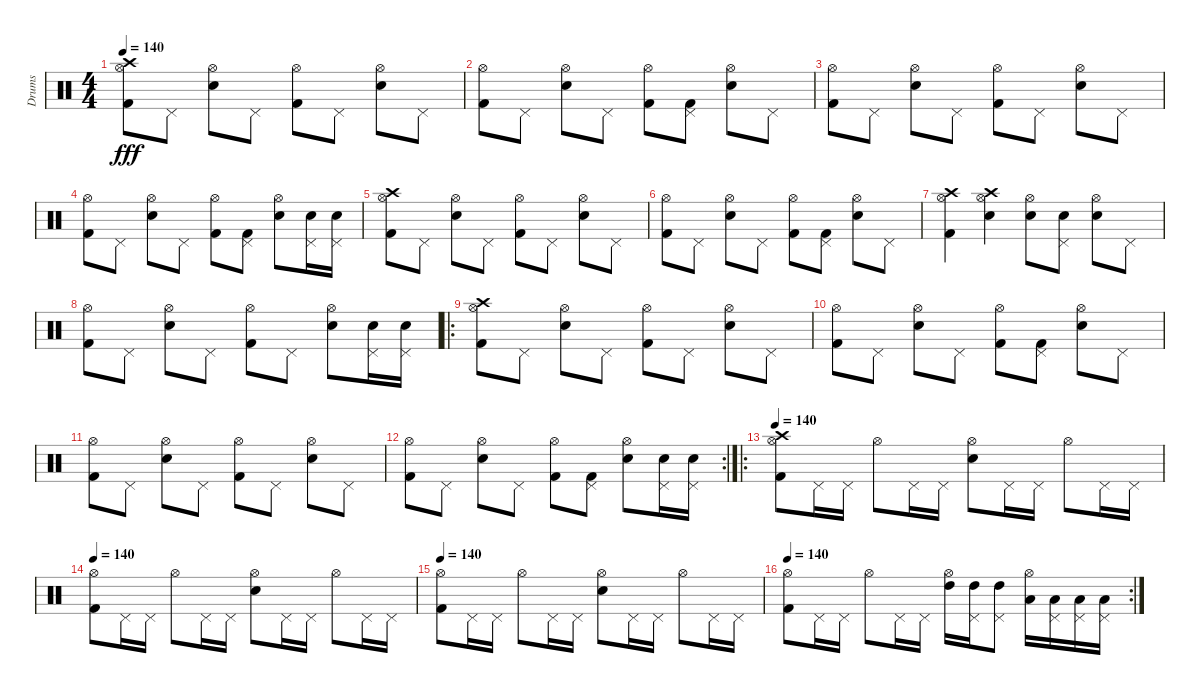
\track ("Drums" "Drums") {instrument percussion}
\staff {score}
\articulation defaults
\ts (4 4)
\tempo 140
\clef neutral
\ks c
("Hi-Hat (open)" "Kick (hit) 2" "Crash high (hit)").8{dy fff} "Pedal Hi-Hat (hit)".8 ("Hi-Hat (open)" "Snare (hit) 2").8 "Pedal Hi-Hat (hit)".8 ("Hi-Hat (open)" "Kick (hit) 2").8 "Pedal Hi-Hat (hit)".8 ("Hi-Hat (open)" "Snare (hit) 2").8 "Pedal Hi-Hat (hit)".8 |
("Hi-Hat (open)" "Kick (hit) 2").8 "Pedal Hi-Hat (hit)".8 ("Hi-Hat (open)" "Snare (hit) 2").8 "Pedal Hi-Hat (hit)".8 ("Hi-Hat (open)" "Kick (hit) 2").8 ("Pedal Hi-Hat (hit)" "Kick (hit) 2").8 ("Hi-Hat (open)" "Snare (hit) 2").8 "Pedal Hi-Hat (hit)".8 |
("Hi-Hat (open)" "Kick (hit) 2").8 "Pedal Hi-Hat (hit)".8 ("Hi-Hat (open)" "Snare (hit) 2").8 "Pedal Hi-Hat (hit)".8 ("Hi-Hat (open)" "Kick (hit) 2").8 "Pedal Hi-Hat (hit)".8 ("Hi-Hat (open)" "Snare (hit) 2").8 "Pedal Hi-Hat (hit)".8 |
("Hi-Hat (open)" "Kick (hit) 2").8 "Pedal Hi-Hat (hit)".8 ("Hi-Hat (open)" "Snare (hit) 2").8 "Pedal Hi-Hat (hit)".8 ("Hi-Hat (open)" "Kick (hit) 2").8 ("Pedal Hi-Hat (hit)" "Kick (hit) 2").8 ("Hi-Hat (open)" "Snare (hit) 2").8 ("Pedal Hi-Hat (hit)" "Snare (hit) 2").16 ("Pedal Hi-Hat (hit)" "Snare (hit) 2").16 |
("Hi-Hat (open)" "Kick (hit) 2" "Crash high (hit)").8 "Pedal Hi-Hat (hit)".8 ("Hi-Hat (open)" "Snare (hit) 2").8 "Pedal Hi-Hat (hit)".8 ("Hi-Hat (open)" "Kick (hit) 2").8 "Pedal Hi-Hat (hit)".8 ("Hi-Hat (open)" "Snare (hit) 2").8 "Pedal Hi-Hat (hit)".8 |
("Hi-Hat (open)" "Kick (hit) 2").8 "Pedal Hi-Hat (hit)".8 ("Hi-Hat (open)" "Snare (hit) 2").8 "Pedal Hi-Hat (hit)".8 ("Hi-Hat (open)" "Kick (hit) 2").8 ("Pedal Hi-Hat (hit)" "Kick (hit) 2").8 ("Hi-Hat (open)" "Snare (hit) 2").8 "Pedal Hi-Hat (hit)".8 |
("Hi-Hat (open)" "Kick (hit) 2" "Crash high (hit)").4 ("Hi-Hat (open)" "Snare (hit) 2" "Crash high (hit)").4 ("Hi-Hat (open)" "Snare (hit) 2").8 ("Pedal Hi-Hat (hit)" "Snare (hit) 2").8 ("Hi-Hat (open)" "Snare (hit) 2").8 "Pedal Hi-Hat (hit)".8 |
("Hi-Hat (open)" "Kick (hit) 2").8 "Pedal Hi-Hat (hit)".8 ("Hi-Hat (open)" "Snare (hit) 2").8 "Pedal Hi-Hat (hit)".8 ("Hi-Hat (open)" "Kick (hit) 2").8 "Pedal Hi-Hat (hit)".8 ("Hi-Hat (open)" "Snare (hit) 2").8 ("Pedal Hi-Hat (hit)" "Snare (hit) 2").16 ("Pedal Hi-Hat (hit)" "Snare (hit) 2").16 |
\ro
("Hi-Hat (open)" "Kick (hit) 2" "Crash high (hit)").8 "Pedal Hi-Hat (hit)".8 ("Hi-Hat (open)" "Snare (hit) 2").8 "Pedal Hi-Hat (hit)".8 ("Hi-Hat (open)" "Kick (hit) 2").8 "Pedal Hi-Hat (hit)".8 ("Hi-Hat (open)" "Snare (hit) 2").8 "Pedal Hi-Hat (hit)".8 |
("Hi-Hat (open)" "Kick (hit) 2").8 "Pedal Hi-Hat (hit)".8 ("Hi-Hat (open)" "Snare (hit) 2").8 "Pedal Hi-Hat (hit)".8 ("Hi-Hat (open)" "Kick (hit) 2").8 ("Pedal Hi-Hat (hit)" "Kick (hit) 2").8 ("Hi-Hat (open)" "Snare (hit) 2").8 "Pedal Hi-Hat (hit)".8 |
("Hi-Hat (open)" "Kick (hit) 2").8 "Pedal Hi-Hat (hit)".8 ("Hi-Hat (open)" "Snare (hit) 2").8 "Pedal Hi-Hat (hit)".8 ("Hi-Hat (open)" "Kick (hit) 2").8 "Pedal Hi-Hat (hit)".8 ("Hi-Hat (open)" "Snare (hit) 2").8 "Pedal Hi-Hat (hit)".8 |
\rc 2
("Hi-Hat (open)" "Kick (hit) 2").8 "Pedal Hi-Hat (hit)".8 ("Hi-Hat (open)" "Snare (hit) 2").8 "Pedal Hi-Hat (hit)".8 ("Hi-Hat (open)" "Kick (hit) 2").8 ("Pedal Hi-Hat (hit)" "Kick (hit) 2").8 ("Hi-Hat (open)" "Snare (hit) 2").8 ("Pedal Hi-Hat (hit)" "Snare (hit) 2").16 ("Pedal Hi-Hat (hit)" "Snare (hit) 2").16 |
\ro
\tempo 140
("Hi-Hat (open)" "Kick (hit) 2" "Crash high (hit)").8 "Pedal Hi-Hat (hit)".16 "Pedal Hi-Hat (hit)".16 "Hi-Hat (open)".8 "Pedal Hi-Hat (hit)".16 "Pedal Hi-Hat (hit)".16 ("Hi-Hat (open)" "Snare (hit) 2").8 "Pedal Hi-Hat (hit)".16 "Pedal Hi-Hat (hit)".16 "Hi-Hat (open)".8 "Pedal Hi-Hat (hit)".16 "Pedal Hi-Hat (hit)".16 |
\tempo 140
("Hi-Hat (open)" "Kick (hit) 2").8 "Pedal Hi-Hat (hit)".16 "Pedal Hi-Hat (hit)".16 "Hi-Hat (open)".8 "Pedal Hi-Hat (hit)".16 "Pedal Hi-Hat (hit)".16 ("Hi-Hat (open)" "Snare (hit) 2").8 "Pedal Hi-Hat (hit)".16 "Pedal Hi-Hat (hit)".16 "Hi-Hat (open)".8 "Pedal Hi-Hat (hit)".16 "Pedal Hi-Hat (hit)".16 |
\tempo 140
("Hi-Hat (open)" "Kick (hit) 2").8 "Pedal Hi-Hat (hit)".16 "Pedal Hi-Hat (hit)".16 "Hi-Hat (open)".8 "Pedal Hi-Hat (hit)".16 "Pedal Hi-Hat (hit)".16 ("Hi-Hat (open)" "Snare (hit) 2").8 "Pedal Hi-Hat (hit)".16 "Pedal Hi-Hat (hit)".16 "Hi-Hat (open)".8 "Pedal Hi-Hat (hit)".16 "Pedal Hi-Hat (hit)".16 |
\rc 2
\tempo 140
("Hi-Hat (open)" "Kick (hit) 2").8 "Pedal Hi-Hat (hit)".16 "Pedal Hi-Hat (hit)".16 "Hi-Hat (open)".8 "Pedal Hi-Hat (hit)".16 "Pedal Hi-Hat (hit)".16 ("Hi-Hat (open)" "High Tom (hit)").16 ("Pedal Hi-Hat (hit)" "High Tom (hit)").16 ("Pedal Hi-Hat (hit)" "High Tom (hit)").8 ("Hi-Hat (open)" "Low Tom (hit)").16 ("Pedal Hi-Hat (hit)" "Low Tom (hit)").16 ("Pedal Hi-Hat (hit)" "Low Tom (hit)").16 ("Pedal Hi-Hat (hit)" "Low Tom (hit)").16
